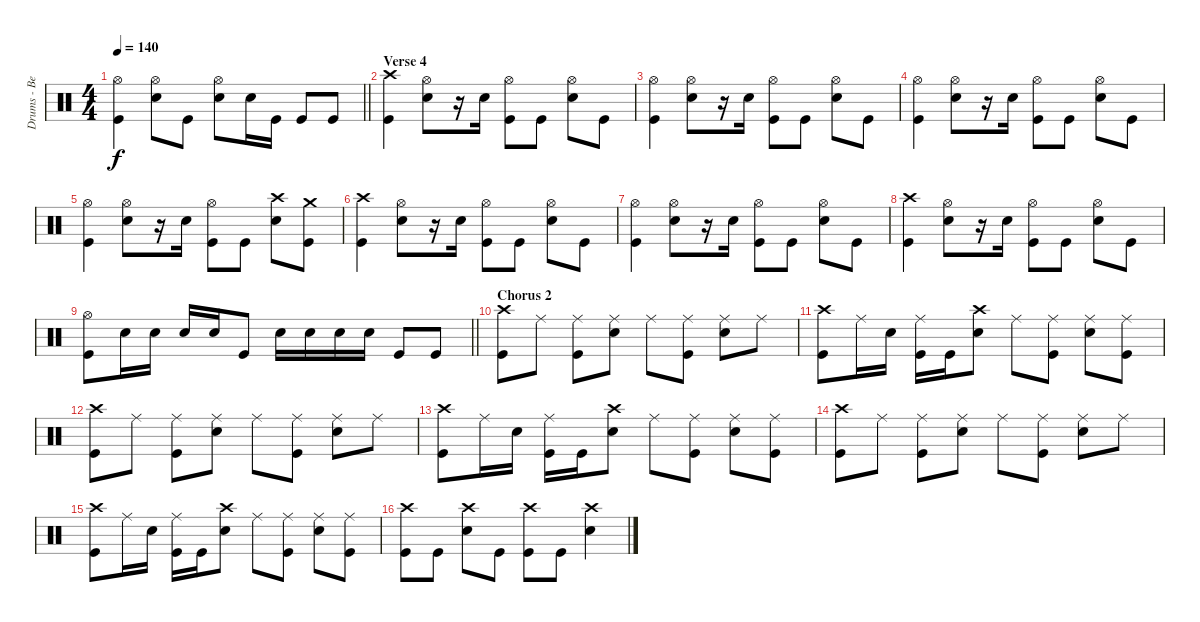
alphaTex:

\track ("Drums - Ben Johnston" "Drums - Be") {instrument percussion}
\staff {score}
\articulation defaults
\ts (4 4)
\tempo 140
\clef neutral
\barLineRight lightlight
\ks c
("Hi-Hat (open)" "Kick (hit)").4{dy f} ("Hi-Hat (open)" "Snare (hit) 2").8 "Kick (hit)".8 ("Hi-Hat (open)" "Snare (hit) 2").8 "Snare (hit) 2".16 "Kick (hit)".16 "Kick (hit)".8 "Kick (hit)".8 |
\section ("" "Verse 4")
("Crash high (hit)" "Kick (hit)").4 ("Hi-Hat (open)" "Snare (hit) 2").8 r.16 "Snare (hit) 2".16 ("Hi-Hat (open)" "Kick (hit)").8 "Kick (hit)".8 ("Hi-Hat (open)" "Snare (hit) 2").8 "Kick (hit)".8 |
("Hi-Hat (open)" "Kick (hit)").4 ("Hi-Hat (open)" "Snare (hit) 2").8 r.16 "Snare (hit) 2".16 ("Hi-Hat (open)" "Kick (hit)").8 "Kick (hit)".8 ("Hi-Hat (open)" "Snare (hit) 2").8 "Kick (hit)".8 |
("Hi-Hat (open)" "Kick (hit)").4 ("Hi-Hat (open)" "Snare (hit) 2").8 r.16 "Snare (hit) 2".16 ("Hi-Hat (open)" "Kick (hit)").8 "Kick (hit)".8 ("Hi-Hat (open)" "Snare (hit) 2").8 "Kick (hit)".8 |
("Hi-Hat (open)" "Kick (hit)").4 ("Hi-Hat (open)" "Snare (hit) 2").8 r.16 "Snare (hit) 2".16 ("Hi-Hat (open)" "Kick (hit)").8 "Kick (hit)".8 ("Crash high (hit)" "Snare (hit) 2").8 ("Crash medium (hit)" "Kick (hit)").8 |
("Crash high (hit)" "Kick (hit)").4 ("Hi-Hat (open)" "Snare (hit) 2").8 r.16 "Snare (hit) 2".16 ("Hi-Hat (open)" "Kick (hit)").8 "Kick (hit)".8 ("Hi-Hat (open)" "Snare (hit) 2").8 "Kick (hit)".8 |
("Hi-Hat (open)" "Kick (hit)").4 ("Hi-Hat (open)" "Snare (hit) 2").8 r.16 "Snare (hit) 2".16 ("Hi-Hat (open)" "Kick (hit)").8 "Kick (hit)".8 ("Hi-Hat (open)" "Snare (hit) 2").8 "Kick (hit)".8 |
("Crash high (hit)" "Kick (hit)").4 ("Hi-Hat (open)" "Snare (hit) 2").8 r.16 "Snare (hit) 2".16 ("Hi-Hat (open)" "Kick (hit)").8 "Kick (hit)".8 ("Hi-Hat (open)" "Snare (hit) 2").8 "Kick (hit)".8 |
\barLineRight lightlight
("Hi-Hat (open)" "Kick (hit)").8 "Snare (hit) 2".16 "Snare (hit) 2".16 "Snare (hit) 2".16 "Snare (hit) 2".16 "Kick (hit)".8 "Snare (hit) 2".16 "Snare (hit) 2".16 "Snare (hit) 2".16 "Snare (hit) 2".16 "Kick (hit)".8 "Kick (hit)".8 |
\section ("" "Chorus 2")
("Crash high (hit)" "Kick (hit)").8 "Ride (middle)".8 ("Ride (middle)" "Kick (hit)").8 ("Ride (middle)" "Snare (hit) 2").8 "Ride (middle)".8 ("Ride (middle)" "Kick (hit)").8 ("Ride (middle)" "Snare (hit) 2").8 "Ride (middle)".8 |
("Crash high (hit)" "Kick (hit)").8 "Ride (middle)".16 "Snare (hit) 2".16 ("Ride (middle)" "Kick (hit)").16 "Kick (hit)".16 ("Crash high (hit)" "Snare (hit) 2").8 "Ride (middle)".8 ("Ride (middle)" "Kick (hit)").8 ("Ride (middle)" "Snare (hit) 2").8 ("Ride (middle)" "Kick (hit)").8 |
("Crash high (hit)" "Kick (hit)").8 "Ride (middle)".8 ("Ride (middle)" "Kick (hit)").8 ("Ride (middle)" "Snare (hit) 2").8 "Ride (middle)".8 ("Ride (middle)" "Kick (hit)").8 ("Ride (middle)" "Snare (hit) 2").8 "Ride (middle)".8 |
("Crash high (hit)" "Kick (hit)").8 "Ride (middle)".16 "Snare (hit) 2".16 ("Ride (middle)" "Kick (hit)").16 "Kick (hit)".16 ("Crash high (hit)" "Snare (hit) 2").8 "Ride (middle)".8 ("Ride (middle)" "Kick (hit)").8 ("Ride (middle)" "Snare (hit) 2").8 ("Ride (middle)" "Kick (hit)").8 |
("Crash high (hit)" "Kick (hit)").8 "Ride (middle)".8 ("Ride (middle)" "Kick (hit)").8 ("Ride (middle)" "Snare (hit) 2").8 "Ride (middle)".8 ("Ride (middle)" "Kick (hit)").8 ("Ride (middle)" "Snare (hit) 2").8 "Ride (middle)".8 |
("Crash high (hit)" "Kick (hit)").8 "Ride (middle)".16 "Snare (hit) 2".16 ("Ride (middle)" "Kick (hit)").16 "Kick (hit)".16 ("Crash high (hit)" "Snare (hit) 2").8 "Ride (middle)".8 ("Ride (middle)" "Kick (hit)").8 ("Ride (middle)" "Snare (hit) 2").8 ("Ride (middle)" "Kick (hit)").8 |
("Crash high (hit)" "Kick (hit)").8 "Kick (hit)".8 ("Crash high (hit)" "Snare (hit) 2").8 "Kick (hit)".8 ("Crash high (hit)" "Kick (hit)").8 "Kick (hit)".8 ("Crash high (hit)" "Snare (hit) 2").4
